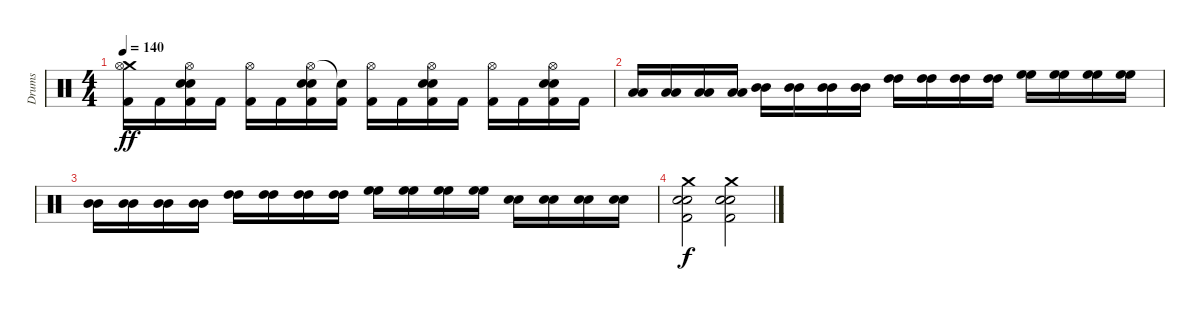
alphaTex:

\track ("Drums" "Drums") {instrument percussion}
\staff {score}
\articulation defaults
\ts (4 4)
\tempo 140
\clef neutral
\ks c
("Crash medium (hit)" "Hi-Hat (open)" "Kick (hit) 2").16{dy ff} "Kick (hit) 2".16 ("Hi-Hat (open)" "Electric Snare (hit)" "Electric Snare (hit)" "Kick (hit) 2").16 "Kick (hit) 2".16 ("Hi-Hat (open)" "Kick (hit) 2").16 "Kick (hit) 2".16 ("Hi-Hat (open)" "Electric Snare (hit)" "Electric Snare (hit)" "Kick (hit) 2").16 ("Snare (hit)"{t} "Kick (hit) 2").16 ("Hi-Hat (open)" "Kick (hit) 2").16 "Kick (hit) 2".16 ("Hi-Hat (open)" "Electric Snare (hit)" "Electric Snare (hit)" "Kick (hit) 2").16 "Kick (hit) 2".16 ("Hi-Hat (open)" "Kick (hit) 2").16 "Kick (hit) 2".16 ("Hi-Hat (open)" "Electric Snare (hit)" "Electric Snare (hit)" "Kick (hit) 2").16 "Kick (hit) 2".16 |
("Low Tom (hit)" "Low Tom (hit)").16 ("Low Tom (hit)" "Low Tom (hit)").16 ("Low Tom (hit)" "Low Tom (hit)").16 ("Low Tom (hit)" "Low Tom (hit)").16 ("Mid Tom (hit)" "Mid Tom (hit)").16 ("Mid Tom (hit)" "Mid Tom (hit)").16 ("Mid Tom (hit)" "Mid Tom (hit)").16 ("Mid Tom (hit)" "Mid Tom (hit)").16 ("High Tom (hit)" "High Tom (hit)").16 ("High Tom (hit)" "High Tom (hit)").16 ("High Tom (hit)" "High Tom (hit)").16 ("High Tom (hit)" "High Tom (hit)").16 ("High Floor Tom (hit)" "High Floor Tom (hit)").16 ("High Floor Tom (hit)" "High Floor Tom (hit)").16 ("High Floor Tom (hit)" "High Floor Tom (hit)").16 ("High Floor Tom (hit)" "High Floor Tom (hit)").16 |
("Mid Tom (hit)" "Mid Tom (hit)").16 ("Mid Tom (hit)" "Mid Tom (hit)").16 ("Mid Tom (hit)" "Mid Tom (hit)").16 ("Mid Tom (hit)" "Mid Tom (hit)").16 ("High Tom (hit)" "High Tom (hit)").16 ("High Tom (hit)" "High Tom (hit)").16 ("High Tom (hit)" "High Tom (hit)").16 ("High Tom (hit)" "High Tom (hit)").16 ("High Floor Tom (hit)" "High Floor Tom (hit)").16 ("High Floor Tom (hit)" "High Floor Tom (hit)").16 ("High Floor Tom (hit)" "High Floor Tom (hit)").16 ("High Floor Tom (hit)" "High Floor Tom (hit)").16 ("Electric Snare (hit)" "Electric Snare (hit)").16 ("Electric Snare (hit)" "Electric Snare (hit)").16 ("Electric Snare (hit)" "Electric Snare (hit)").16 ("Electric Snare (hit)" "Electric Snare (hit)").16 |
("Crash medium (hit)" "Electric Snare (hit)" "Electric Snare (hit)" "Kick (hit) 2").2{dy f} ("Crash medium (hit)" "Electric Snare (hit)" "Electric Snare (hit)" "Kick (hit) 2").2
